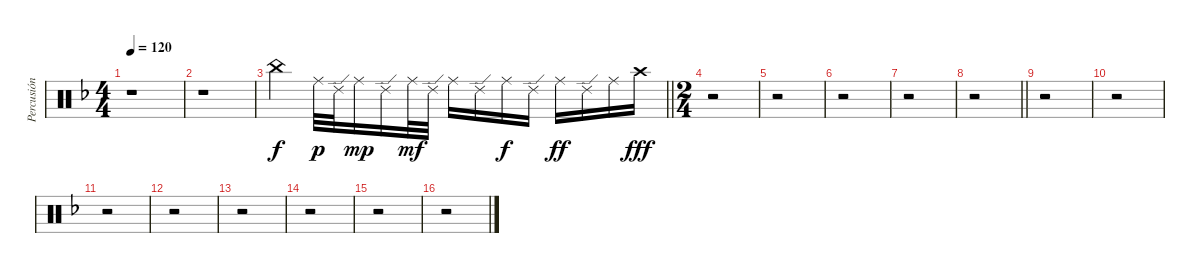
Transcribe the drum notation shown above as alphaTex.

\track ("Percusión" "Percusión") {instrument percussion}
\staff {score}
\articulation defaults
\ts (4 4)
\tempo 120
\clef neutral
\ks dminor
r.1{dy f} |
r.1 |
\barLineRight lightlight "China (hit)".4 "Ride (middle)".32{dy p} "Ride (edge) 2".32 "Ride (middle)".16{dy mp} "Ride (edge) 2".16 "Ride (middle)".32{dy mf} "Ride (edge) 2".32 "Ride (middle)".16 "Ride (edge) 2".16 "Ride (middle)".16{dy f} "Ride (edge) 2".16 "Ride (middle)".16{dy ff} "Ride (edge) 2".16 "Ride (middle)".16 "Crash high (hit)".16{dy fff}
|
\ts (2 4)
r.2 |
r.2 |
r.2 |
r.2 |
\barLineRight lightlight
r.2 |
r.2 |
r.2 |
r.2 |
r.2 |
r.2 |
r.2 |
r.2 |
r.2
